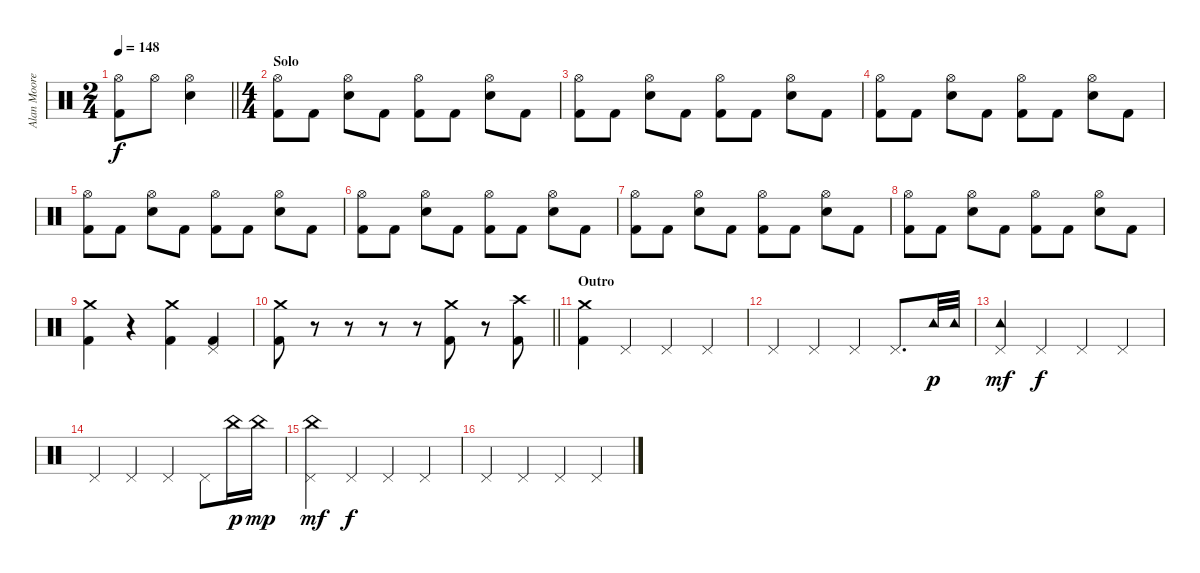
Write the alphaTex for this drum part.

\track ("Alan Moore" "Alan Moore") {instrument percussion}
\staff {score}
\articulation defaults
\ts (2 4)
\tempo 148
\clef neutral
\barLineRight lightlight
\ks c
("Hi-Hat (open)" "Kick (hit) 2").8{dy f} "Hi-Hat (open)".8 ("Hi-Hat (open)" "Snare (hit) 2").4 |
\ts (4 4)
\section ("" "Solo")
("Hi-Hat (open)" "Kick (hit) 2").8 "Kick (hit) 2".8 ("Hi-Hat (open)" "Snare (hit) 2").8 "Kick (hit) 2".8 ("Hi-Hat (open)" "Kick (hit) 2").8 "Kick (hit) 2".8 ("Hi-Hat (open)" "Snare (hit) 2").8 "Kick (hit) 2".8 |
("Hi-Hat (open)" "Kick (hit) 2").8 "Kick (hit) 2".8 ("Hi-Hat (open)" "Snare (hit) 2").8 "Kick (hit) 2".8 ("Hi-Hat (open)" "Kick (hit) 2").8 "Kick (hit) 2".8 ("Hi-Hat (open)" "Snare (hit) 2").8 "Kick (hit) 2".8 |
("Hi-Hat (open)" "Kick (hit) 2").8 "Kick (hit) 2".8 ("Hi-Hat (open)" "Snare (hit) 2").8 "Kick (hit) 2".8 ("Hi-Hat (open)" "Kick (hit) 2").8 "Kick (hit) 2".8 ("Hi-Hat (open)" "Snare (hit) 2").8 "Kick (hit) 2".8 |
("Hi-Hat (open)" "Kick (hit) 2").8 "Kick (hit) 2".8 ("Hi-Hat (open)" "Snare (hit) 2").8 "Kick (hit) 2".8 ("Hi-Hat (open)" "Kick (hit) 2").8 "Kick (hit) 2".8 ("Hi-Hat (open)" "Snare (hit) 2").8 "Kick (hit) 2".8 |
("Hi-Hat (open)" "Kick (hit) 2").8 "Kick (hit) 2".8 ("Hi-Hat (open)" "Snare (hit) 2").8 "Kick (hit) 2".8 ("Hi-Hat (open)" "Kick (hit) 2").8 "Kick (hit) 2".8 ("Hi-Hat (open)" "Snare (hit) 2").8 "Kick (hit) 2".8 |
("Hi-Hat (open)" "Kick (hit) 2").8 "Kick (hit) 2".8 ("Hi-Hat (open)" "Snare (hit) 2").8 "Kick (hit) 2".8 ("Hi-Hat (open)" "Kick (hit) 2").8 "Kick (hit) 2".8 ("Hi-Hat (open)" "Snare (hit) 2").8 "Kick (hit) 2".8 |
("Hi-Hat (open)" "Kick (hit) 2").8 "Kick (hit) 2".8 ("Hi-Hat (open)" "Snare (hit) 2").8 "Kick (hit) 2".8 ("Hi-Hat (open)" "Kick (hit) 2").8 "Kick (hit) 2".8 ("Hi-Hat (open)" "Snare (hit) 2").8 "Kick (hit) 2".8 |
("Kick (hit) 2" "Crash medium (hit)").4 r.4 ("Crash medium (hit)" "Kick (hit) 2").4 ("Pedal Hi-Hat (hit)" "Kick (hit) 2").4 |
\barLineRight lightlight
("Crash medium (hit)" "Kick (hit) 2").8 r.8 r.8 r.8 r.8 ("Crash medium (hit)" "Kick (hit) 2").8 r.8 ("Crash high (hit)" "Kick (hit) 2").8 |
\section ("" "Outro")
("Crash medium (hit)" "Kick (hit) 2").4 "Pedal Hi-Hat (hit)".4 "Pedal Hi-Hat (hit)".4 "Pedal Hi-Hat (hit)".4 |
"Pedal Hi-Hat (hit)".4 "Pedal Hi-Hat (hit)".4 "Pedal Hi-Hat (hit)".4 "Pedal Hi-Hat (hit)".8{d} "Tambourine (hit)".32{dy p} "Tambourine (hit)".32 |
("Tambourine (hit)" "Pedal Hi-Hat (hit)").4{dy mf} "Pedal Hi-Hat (hit)".4{dy f} "Pedal Hi-Hat (hit)".4 "Pedal Hi-Hat (hit)".4 |
"Pedal Hi-Hat (hit)".4 "Pedal Hi-Hat (hit)".4 "Pedal Hi-Hat (hit)".4 "Pedal Hi-Hat (hit)".8 "China (hit)".16{dy p} "China (hit)".16{dy mp} |
("Pedal Hi-Hat (hit)" "China (hit)").4{dy mf} "Pedal Hi-Hat (hit)".4{dy f} "Pedal Hi-Hat (hit)".4 "Pedal Hi-Hat (hit)".4 |
"Pedal Hi-Hat (hit)".4 "Pedal Hi-Hat (hit)".4 "Pedal Hi-Hat (hit)".4 "Pedal Hi-Hat (hit)".4
